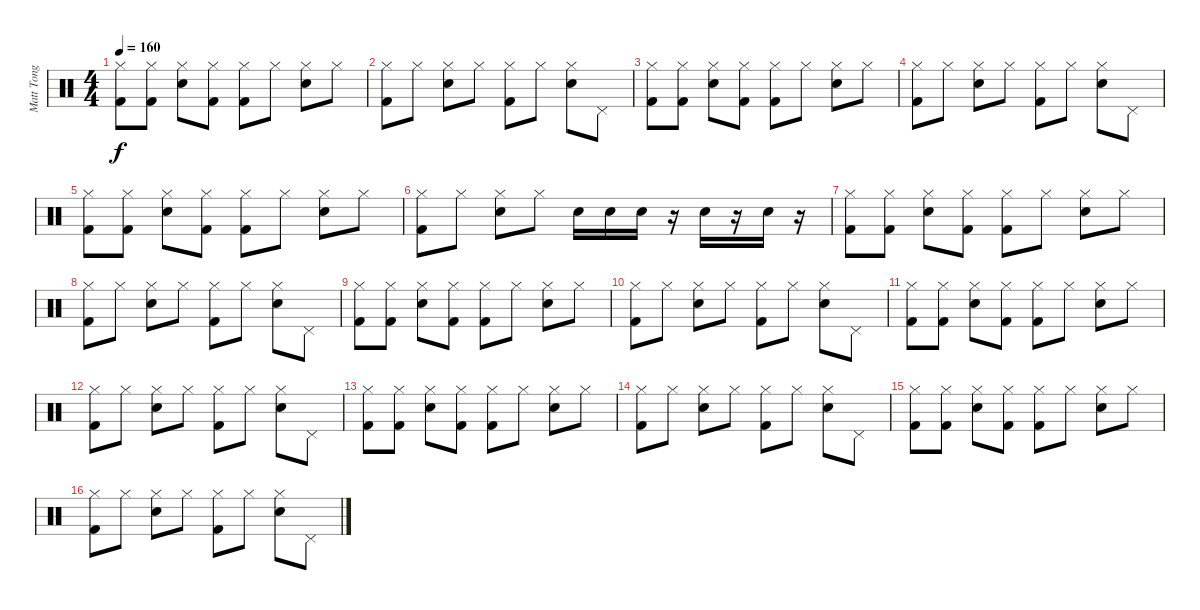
\track ("Matt Tong" "Matt Tong") {instrument percussion}
\staff {score}
\articulation defaults
\ts (4 4)
\tempo 160
\clef neutral
\ks c
("Hi-Hat (closed)" "Kick (hit) 2").8{dy f} ("Hi-Hat (closed)" "Kick (hit) 2").8 ("Hi-Hat (closed)" "Snare (hit) 2").8 ("Hi-Hat (closed)" "Kick (hit) 2").8 ("Hi-Hat (closed)" "Kick (hit) 2").8 "Hi-Hat (closed)".8 ("Hi-Hat (closed)" "Snare (hit) 2").8 "Hi-Hat (closed)".8 |
("Hi-Hat (closed)" "Kick (hit) 2").8 "Hi-Hat (closed)".8 ("Hi-Hat (closed)" "Snare (hit) 2").8 "Hi-Hat (closed)".8 ("Hi-Hat (closed)" "Kick (hit) 2").8 "Hi-Hat (closed)".8 ("Hi-Hat (closed)" "Snare (hit) 2").8 "Pedal Hi-Hat (hit)".8 |
("Hi-Hat (closed)" "Kick (hit) 2").8 ("Hi-Hat (closed)" "Kick (hit) 2").8 ("Hi-Hat (closed)" "Snare (hit) 2").8 ("Hi-Hat (closed)" "Kick (hit) 2").8 ("Hi-Hat (closed)" "Kick (hit) 2").8 "Hi-Hat (closed)".8 ("Hi-Hat (closed)" "Snare (hit) 2").8 "Hi-Hat (closed)".8 |
("Hi-Hat (closed)" "Kick (hit) 2").8 "Hi-Hat (closed)".8 ("Hi-Hat (closed)" "Snare (hit) 2").8 "Hi-Hat (closed)".8 ("Hi-Hat (closed)" "Kick (hit) 2").8 "Hi-Hat (closed)".8 ("Hi-Hat (closed)" "Snare (hit) 2").8 "Pedal Hi-Hat (hit)".8 |
("Hi-Hat (closed)" "Kick (hit) 2").8 ("Hi-Hat (closed)" "Kick (hit) 2").8 ("Hi-Hat (closed)" "Snare (hit) 2").8 ("Hi-Hat (closed)" "Kick (hit) 2").8 ("Hi-Hat (closed)" "Kick (hit) 2").8 "Hi-Hat (closed)".8 ("Hi-Hat (closed)" "Snare (hit) 2").8 "Hi-Hat (closed)".8 |
("Hi-Hat (closed)" "Kick (hit) 2").8 "Hi-Hat (closed)".8 ("Hi-Hat (closed)" "Snare (hit) 2").8 "Hi-Hat (closed)".8 "Snare (hit) 2".16 "Snare (hit) 2".16 "Snare (hit) 2".16 r.16 "Snare (hit) 2".16 r.16 "Snare (hit) 2".16 r.16 |
("Hi-Hat (closed)" "Kick (hit) 2").8 ("Hi-Hat (closed)" "Kick (hit) 2").8 ("Hi-Hat (closed)" "Snare (hit) 2").8 ("Hi-Hat (closed)" "Kick (hit) 2").8 ("Hi-Hat (closed)" "Kick (hit) 2").8 "Hi-Hat (closed)".8 ("Hi-Hat (closed)" "Snare (hit) 2").8 "Hi-Hat (closed)".8 |
("Hi-Hat (closed)" "Kick (hit) 2").8 "Hi-Hat (closed)".8 ("Hi-Hat (closed)" "Snare (hit) 2").8 "Hi-Hat (closed)".8 ("Hi-Hat (closed)" "Kick (hit) 2").8 "Hi-Hat (closed)".8 ("Hi-Hat (closed)" "Snare (hit) 2").8 "Pedal Hi-Hat (hit)".8 |
("Hi-Hat (closed)" "Kick (hit) 2").8 ("Hi-Hat (closed)" "Kick (hit) 2").8 ("Hi-Hat (closed)" "Snare (hit) 2").8 ("Hi-Hat (closed)" "Kick (hit) 2").8 ("Hi-Hat (closed)" "Kick (hit) 2").8 "Hi-Hat (closed)".8 ("Hi-Hat (closed)" "Snare (hit) 2").8 "Hi-Hat (closed)".8 |
("Hi-Hat (closed)" "Kick (hit) 2").8 "Hi-Hat (closed)".8 ("Hi-Hat (closed)" "Snare (hit) 2").8 "Hi-Hat (closed)".8 ("Hi-Hat (closed)" "Kick (hit) 2").8 "Hi-Hat (closed)".8 ("Hi-Hat (closed)" "Snare (hit) 2").8 "Pedal Hi-Hat (hit)".8 |
("Hi-Hat (closed)" "Kick (hit) 2").8 ("Hi-Hat (closed)" "Kick (hit) 2").8 ("Hi-Hat (closed)" "Snare (hit) 2").8 ("Hi-Hat (closed)" "Kick (hit) 2").8 ("Hi-Hat (closed)" "Kick (hit) 2").8 "Hi-Hat (closed)".8 ("Hi-Hat (closed)" "Snare (hit) 2").8 "Hi-Hat (closed)".8 |
("Hi-Hat (closed)" "Kick (hit) 2").8 "Hi-Hat (closed)".8 ("Hi-Hat (closed)" "Snare (hit) 2").8 "Hi-Hat (closed)".8 ("Hi-Hat (closed)" "Kick (hit) 2").8 "Hi-Hat (closed)".8 ("Hi-Hat (closed)" "Snare (hit) 2").8 "Pedal Hi-Hat (hit)".8 |
("Hi-Hat (closed)" "Kick (hit) 2").8 ("Hi-Hat (closed)" "Kick (hit) 2").8 ("Hi-Hat (closed)" "Snare (hit) 2").8 ("Hi-Hat (closed)" "Kick (hit) 2").8 ("Hi-Hat (closed)" "Kick (hit) 2").8 "Hi-Hat (closed)".8 ("Hi-Hat (closed)" "Snare (hit) 2").8 "Hi-Hat (closed)".8 |
("Hi-Hat (closed)" "Kick (hit) 2").8 "Hi-Hat (closed)".8 ("Hi-Hat (closed)" "Snare (hit) 2").8 "Hi-Hat (closed)".8 ("Hi-Hat (closed)" "Kick (hit) 2").8 "Hi-Hat (closed)".8 ("Hi-Hat (closed)" "Snare (hit) 2").8 "Pedal Hi-Hat (hit)".8 |
("Hi-Hat (closed)" "Kick (hit) 2").8 ("Hi-Hat (closed)" "Kick (hit) 2").8 ("Hi-Hat (closed)" "Snare (hit) 2").8 ("Hi-Hat (closed)" "Kick (hit) 2").8 ("Hi-Hat (closed)" "Kick (hit) 2").8 "Hi-Hat (closed)".8 ("Hi-Hat (closed)" "Snare (hit) 2").8 "Hi-Hat (closed)".8 |
("Hi-Hat (closed)" "Kick (hit) 2").8 "Hi-Hat (closed)".8 ("Hi-Hat (closed)" "Snare (hit) 2").8 "Hi-Hat (closed)".8 ("Hi-Hat (closed)" "Kick (hit) 2").8 "Hi-Hat (closed)".8 ("Hi-Hat (closed)" "Snare (hit) 2").8 "Pedal Hi-Hat (hit)".8
